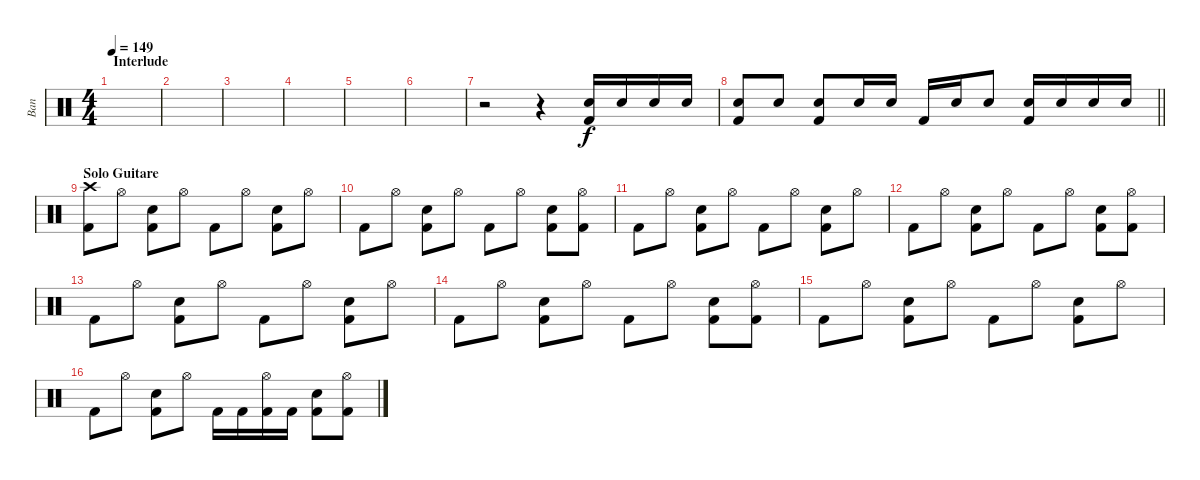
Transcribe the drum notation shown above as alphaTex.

\track ("Ban" "Ban") {instrument percussion}
\staff {score}
\articulation defaults
\ts (4 4)
\section ("" "Interlude")
\tempo 149
\clef neutral
\ks c
|
|
|
|
|
|
r.2 r.4 ("Electric Snare (hit)" "Kick (hit) 2").16 "Electric Snare (hit)".16 "Electric Snare (hit)".16 "Electric Snare (hit)".16 |
\barLineRight lightlight
("Electric Snare (hit)" "Kick (hit) 2").8 "Electric Snare (hit)".8 ("Electric Snare (hit)" "Kick (hit) 2").8 "Electric Snare (hit)".16 "Electric Snare (hit)".16 "Kick (hit) 2".16 "Electric Snare (hit)".16 "Electric Snare (hit)".8 ("Electric Snare (hit)" "Kick (hit) 2").16 "Electric Snare (hit)".16 "Electric Snare (hit)".16 "Electric Snare (hit)".16 |
\section ("" "Solo Guitare")
("Crash high (hit)" "Kick (hit) 2").8 "Hi-Hat (open)".8 ("Electric Snare (hit)" "Kick (hit) 2").8 "Hi-Hat (open)".8 "Kick (hit) 2".8 "Hi-Hat (open)".8 ("Electric Snare (hit)" "Kick (hit) 2").8 "Hi-Hat (open)".8 |
"Kick (hit) 2".8 "Hi-Hat (open)".8 ("Electric Snare (hit)" "Kick (hit) 2").8 "Hi-Hat (open)".8 "Kick (hit) 2".8 "Hi-Hat (open)".8 ("Electric Snare (hit)" "Kick (hit) 2").8 ("Hi-Hat (open)" "Kick (hit) 2").8 |
"Kick (hit) 2".8 "Hi-Hat (open)".8 ("Electric Snare (hit)" "Kick (hit) 2").8 "Hi-Hat (open)".8 "Kick (hit) 2".8 "Hi-Hat (open)".8 ("Electric Snare (hit)" "Kick (hit) 2").8 "Hi-Hat (open)".8 |
"Kick (hit) 2".8 "Hi-Hat (open)".8 ("Electric Snare (hit)" "Kick (hit) 2").8 "Hi-Hat (open)".8 "Kick (hit) 2".8 "Hi-Hat (open)".8 ("Electric Snare (hit)" "Kick (hit) 2").8 ("Hi-Hat (open)" "Kick (hit) 2").8 |
"Kick (hit) 2".8 "Hi-Hat (open)".8 ("Electric Snare (hit)" "Kick (hit) 2").8 "Hi-Hat (open)".8 "Kick (hit) 2".8 "Hi-Hat (open)".8 ("Electric Snare (hit)" "Kick (hit) 2").8 "Hi-Hat (open)".8 |
"Kick (hit) 2".8 "Hi-Hat (open)".8 ("Electric Snare (hit)" "Kick (hit) 2").8 "Hi-Hat (open)".8 "Kick (hit) 2".8 "Hi-Hat (open)".8 ("Electric Snare (hit)" "Kick (hit) 2").8 ("Hi-Hat (open)" "Kick (hit) 2").8 |
"Kick (hit) 2".8 "Hi-Hat (open)".8 ("Electric Snare (hit)" "Kick (hit) 2").8 "Hi-Hat (open)".8 "Kick (hit) 2".8 "Hi-Hat (open)".8 ("Electric Snare (hit)" "Kick (hit) 2").8 "Hi-Hat (open)".8 |
"Kick (hit) 2".8 "Hi-Hat (open)".8 ("Electric Snare (hit)" "Kick (hit) 2").8 "Hi-Hat (open)".8 "Kick (hit) 2".16 "Kick (hit) 2".16 ("Hi-Hat (open)" "Kick (hit) 2").16 "Kick (hit) 2".16 ("Electric Snare (hit)" "Kick (hit) 2").8 ("Hi-Hat (open)" "Kick (hit) 2").8
